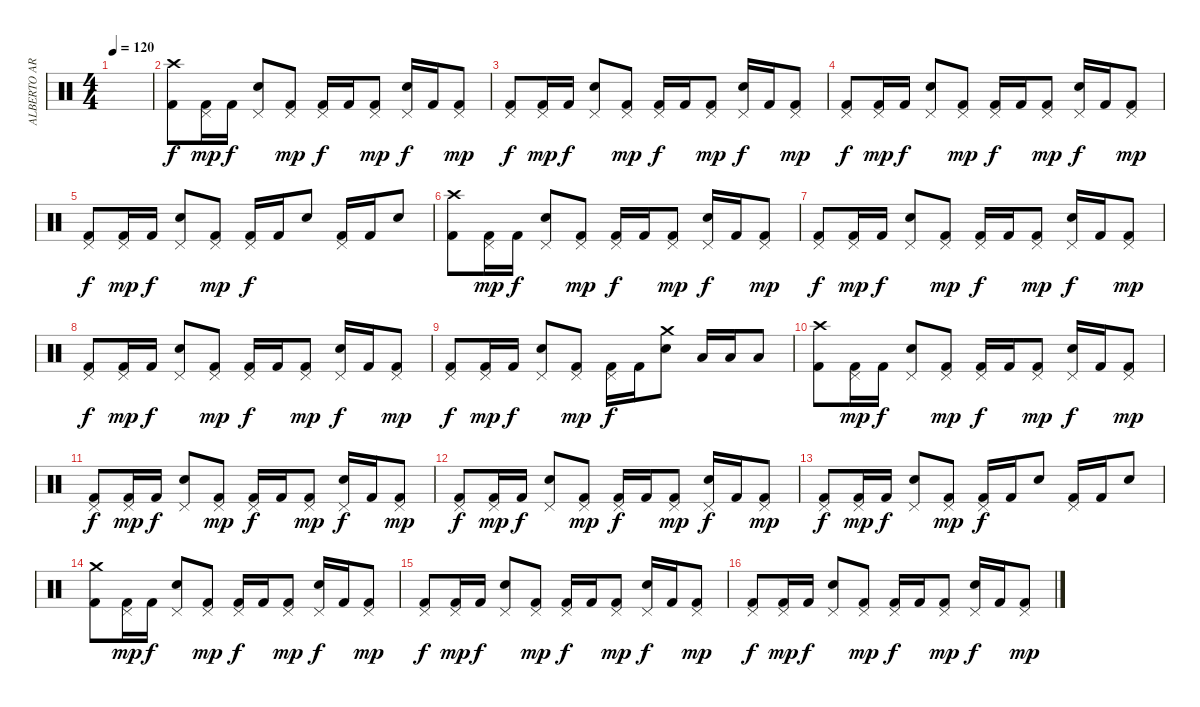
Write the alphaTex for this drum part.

\track ("ALBERTO ARDINES" "ALBERTO AR") {instrument percussion}
\staff {score}
\articulation defaults
\ts (4 4)
\tempo 120
\clef neutral
\ks c
|
("Crash high (hit)" "Kick (hit) 2").8 ("Pedal Hi-Hat (hit)" "Kick (hit) 2").16{dy mp} "Kick (hit) 2".16{dy f} ("Pedal Hi-Hat (hit)" "Electric Snare (hit)").8 ("Pedal Hi-Hat (hit)" "Kick (hit) 2").8{dy mp} ("Pedal Hi-Hat (hit)" "Kick (hit) 2").16{dy f} "Kick (hit) 2".16 ("Pedal Hi-Hat (hit)" "Kick (hit) 2").8{dy mp} ("Pedal Hi-Hat (hit)" "Electric Snare (hit)").16{dy f} "Kick (hit) 2".16 ("Pedal Hi-Hat (hit)" "Kick (hit) 2").8{dy mp} |
("Pedal Hi-Hat (hit)" "Kick (hit) 2").8{dy f} ("Pedal Hi-Hat (hit)" "Kick (hit) 2").16{dy mp} "Kick (hit) 2".16{dy f} ("Pedal Hi-Hat (hit)" "Electric Snare (hit)").8 ("Pedal Hi-Hat (hit)" "Kick (hit) 2").8{dy mp} ("Pedal Hi-Hat (hit)" "Kick (hit) 2").16{dy f} "Kick (hit) 2".16 ("Pedal Hi-Hat (hit)" "Kick (hit) 2").8{dy mp} ("Pedal Hi-Hat (hit)" "Electric Snare (hit)").16{dy f} "Kick (hit) 2".16 ("Pedal Hi-Hat (hit)" "Kick (hit) 2").8{dy mp} |
("Pedal Hi-Hat (hit)" "Kick (hit) 2").8{dy f} ("Pedal Hi-Hat (hit)" "Kick (hit) 2").16{dy mp} "Kick (hit) 2".16{dy f} ("Pedal Hi-Hat (hit)" "Electric Snare (hit)").8 ("Pedal Hi-Hat (hit)" "Kick (hit) 2").8{dy mp} ("Pedal Hi-Hat (hit)" "Kick (hit) 2").16{dy f} "Kick (hit) 2".16 ("Pedal Hi-Hat (hit)" "Kick (hit) 2").8{dy mp} ("Pedal Hi-Hat (hit)" "Electric Snare (hit)").16{dy f} "Kick (hit) 2".16 ("Pedal Hi-Hat (hit)" "Kick (hit) 2").8{dy mp} |
("Pedal Hi-Hat (hit)" "Kick (hit) 2").8{dy f} ("Pedal Hi-Hat (hit)" "Kick (hit) 2").16{dy mp} "Kick (hit) 2".16{dy f} ("Pedal Hi-Hat (hit)" "Electric Snare (hit)").8 ("Pedal Hi-Hat (hit)" "Kick (hit) 2").8{dy mp} ("Pedal Hi-Hat (hit)" "Kick (hit) 2").16{dy f} "Kick (hit) 2".16 "Electric Snare (hit)".8 ("Pedal Hi-Hat (hit)" "Kick (hit) 2").16 "Kick (hit) 2".16 "Electric Snare (hit)".8 |
("Crash high (hit)" "Kick (hit) 2").8 ("Pedal Hi-Hat (hit)" "Kick (hit) 2").16{dy mp} "Kick (hit) 2".16{dy f} ("Pedal Hi-Hat (hit)" "Electric Snare (hit)").8 ("Pedal Hi-Hat (hit)" "Kick (hit) 2").8{dy mp} ("Pedal Hi-Hat (hit)" "Kick (hit) 2").16{dy f} "Kick (hit) 2".16 ("Pedal Hi-Hat (hit)" "Kick (hit) 2").8{dy mp} ("Pedal Hi-Hat (hit)" "Electric Snare (hit)").16{dy f} "Kick (hit) 2".16 ("Pedal Hi-Hat (hit)" "Kick (hit) 2").8{dy mp} |
("Pedal Hi-Hat (hit)" "Kick (hit) 2").8{dy f} ("Pedal Hi-Hat (hit)" "Kick (hit) 2").16{dy mp} "Kick (hit) 2".16{dy f} ("Pedal Hi-Hat (hit)" "Electric Snare (hit)").8 ("Pedal Hi-Hat (hit)" "Kick (hit) 2").8{dy mp} ("Pedal Hi-Hat (hit)" "Kick (hit) 2").16{dy f} "Kick (hit) 2".16 ("Pedal Hi-Hat (hit)" "Kick (hit) 2").8{dy mp} ("Pedal Hi-Hat (hit)" "Electric Snare (hit)").16{dy f} "Kick (hit) 2".16 ("Pedal Hi-Hat (hit)" "Kick (hit) 2").8{dy mp} |
("Pedal Hi-Hat (hit)" "Kick (hit) 2").8{dy f} ("Pedal Hi-Hat (hit)" "Kick (hit) 2").16{dy mp} "Kick (hit) 2".16{dy f} ("Pedal Hi-Hat (hit)" "Electric Snare (hit)").8 ("Pedal Hi-Hat (hit)" "Kick (hit) 2").8{dy mp} ("Pedal Hi-Hat (hit)" "Kick (hit) 2").16{dy f} "Kick (hit) 2".16 ("Pedal Hi-Hat (hit)" "Kick (hit) 2").8{dy mp} ("Pedal Hi-Hat (hit)" "Electric Snare (hit)").16{dy f} "Kick (hit) 2".16 ("Pedal Hi-Hat (hit)" "Kick (hit) 2").8{dy mp} |
("Pedal Hi-Hat (hit)" "Kick (hit) 2").8{dy f} ("Pedal Hi-Hat (hit)" "Kick (hit) 2").16{dy mp} "Kick (hit) 2".16{dy f} ("Pedal Hi-Hat (hit)" "Electric Snare (hit)").8 ("Pedal Hi-Hat (hit)" "Kick (hit) 2").8{dy mp} ("Pedal Hi-Hat (hit)" "Kick (hit) 2").16{dy f} "Kick (hit) 2".16 ("Crash medium (hit)" "Electric Snare (hit)").8 "Low Tom (hit)".16 "Low Tom (hit)".16 "Low Tom (hit)".8 |
("Crash high (hit)" "Kick (hit) 2").8 ("Pedal Hi-Hat (hit)" "Kick (hit) 2").16{dy mp} "Kick (hit) 2".16{dy f} ("Pedal Hi-Hat (hit)" "Electric Snare (hit)").8 ("Pedal Hi-Hat (hit)" "Kick (hit) 2").8{dy mp} ("Pedal Hi-Hat (hit)" "Kick (hit) 2").16{dy f} "Kick (hit) 2".16 ("Pedal Hi-Hat (hit)" "Kick (hit) 2").8{dy mp} ("Pedal Hi-Hat (hit)" "Electric Snare (hit)").16{dy f} "Kick (hit) 2".16 ("Pedal Hi-Hat (hit)" "Kick (hit) 2").8{dy mp} |
("Pedal Hi-Hat (hit)" "Kick (hit) 2").8{dy f} ("Pedal Hi-Hat (hit)" "Kick (hit) 2").16{dy mp} "Kick (hit) 2".16{dy f} ("Pedal Hi-Hat (hit)" "Electric Snare (hit)").8 ("Pedal Hi-Hat (hit)" "Kick (hit) 2").8{dy mp} ("Pedal Hi-Hat (hit)" "Kick (hit) 2").16{dy f} "Kick (hit) 2".16 ("Pedal Hi-Hat (hit)" "Kick (hit) 2").8{dy mp} ("Pedal Hi-Hat (hit)" "Electric Snare (hit)").16{dy f} "Kick (hit) 2".16 ("Pedal Hi-Hat (hit)" "Kick (hit) 2").8{dy mp} |
("Pedal Hi-Hat (hit)" "Kick (hit) 2").8{dy f} ("Pedal Hi-Hat (hit)" "Kick (hit) 2").16{dy mp} "Kick (hit) 2".16{dy f} ("Pedal Hi-Hat (hit)" "Electric Snare (hit)").8 ("Pedal Hi-Hat (hit)" "Kick (hit) 2").8{dy mp} ("Pedal Hi-Hat (hit)" "Kick (hit) 2").16{dy f} "Kick (hit) 2".16 ("Pedal Hi-Hat (hit)" "Kick (hit) 2").8{dy mp} ("Pedal Hi-Hat (hit)" "Electric Snare (hit)").16{dy f} "Kick (hit) 2".16 ("Pedal Hi-Hat (hit)" "Kick (hit) 2").8{dy mp} |
("Pedal Hi-Hat (hit)" "Kick (hit) 2").8{dy f} ("Pedal Hi-Hat (hit)" "Kick (hit) 2").16{dy mp} "Kick (hit) 2".16{dy f} ("Pedal Hi-Hat (hit)" "Electric Snare (hit)").8 ("Pedal Hi-Hat (hit)" "Kick (hit) 2").8{dy mp} ("Pedal Hi-Hat (hit)" "Kick (hit) 2").16{dy f} "Kick (hit) 2".16 "Electric Snare (hit)".8 ("Pedal Hi-Hat (hit)" "Kick (hit) 2").16 "Kick (hit) 2".16 "Electric Snare (hit)".8 |
("Crash medium (hit)" "Kick (hit) 2").8 ("Pedal Hi-Hat (hit)" "Kick (hit) 2").16{dy mp} "Kick (hit) 2".16{dy f} ("Pedal Hi-Hat (hit)" "Electric Snare (hit)").8 ("Pedal Hi-Hat (hit)" "Kick (hit) 2").8{dy mp} ("Pedal Hi-Hat (hit)" "Kick (hit) 2").16{dy f} "Kick (hit) 2".16 ("Pedal Hi-Hat (hit)" "Kick (hit) 2").8{dy mp} ("Pedal Hi-Hat (hit)" "Electric Snare (hit)").16{dy f} "Kick (hit) 2".16 ("Pedal Hi-Hat (hit)" "Kick (hit) 2").8{dy mp} |
("Pedal Hi-Hat (hit)" "Kick (hit) 2").8{dy f} ("Pedal Hi-Hat (hit)" "Kick (hit) 2").16{dy mp} "Kick (hit) 2".16{dy f} ("Pedal Hi-Hat (hit)" "Electric Snare (hit)").8 ("Pedal Hi-Hat (hit)" "Kick (hit) 2").8{dy mp} ("Pedal Hi-Hat (hit)" "Kick (hit) 2").16{dy f} "Kick (hit) 2".16 ("Pedal Hi-Hat (hit)" "Kick (hit) 2").8{dy mp} ("Pedal Hi-Hat (hit)" "Electric Snare (hit)").16{dy f} "Kick (hit) 2".16 ("Pedal Hi-Hat (hit)" "Kick (hit) 2").8{dy mp} |
("Pedal Hi-Hat (hit)" "Kick (hit) 2").8{dy f} ("Pedal Hi-Hat (hit)" "Kick (hit) 2").16{dy mp} "Kick (hit) 2".16{dy f} ("Pedal Hi-Hat (hit)" "Electric Snare (hit)").8 ("Pedal Hi-Hat (hit)" "Kick (hit) 2").8{dy mp} ("Pedal Hi-Hat (hit)" "Kick (hit) 2").16{dy f} "Kick (hit) 2".16 ("Pedal Hi-Hat (hit)" "Kick (hit) 2").8{dy mp} ("Pedal Hi-Hat (hit)" "Electric Snare (hit)").16{dy f} "Kick (hit) 2".16 ("Pedal Hi-Hat (hit)" "Kick (hit) 2").8{dy mp}
